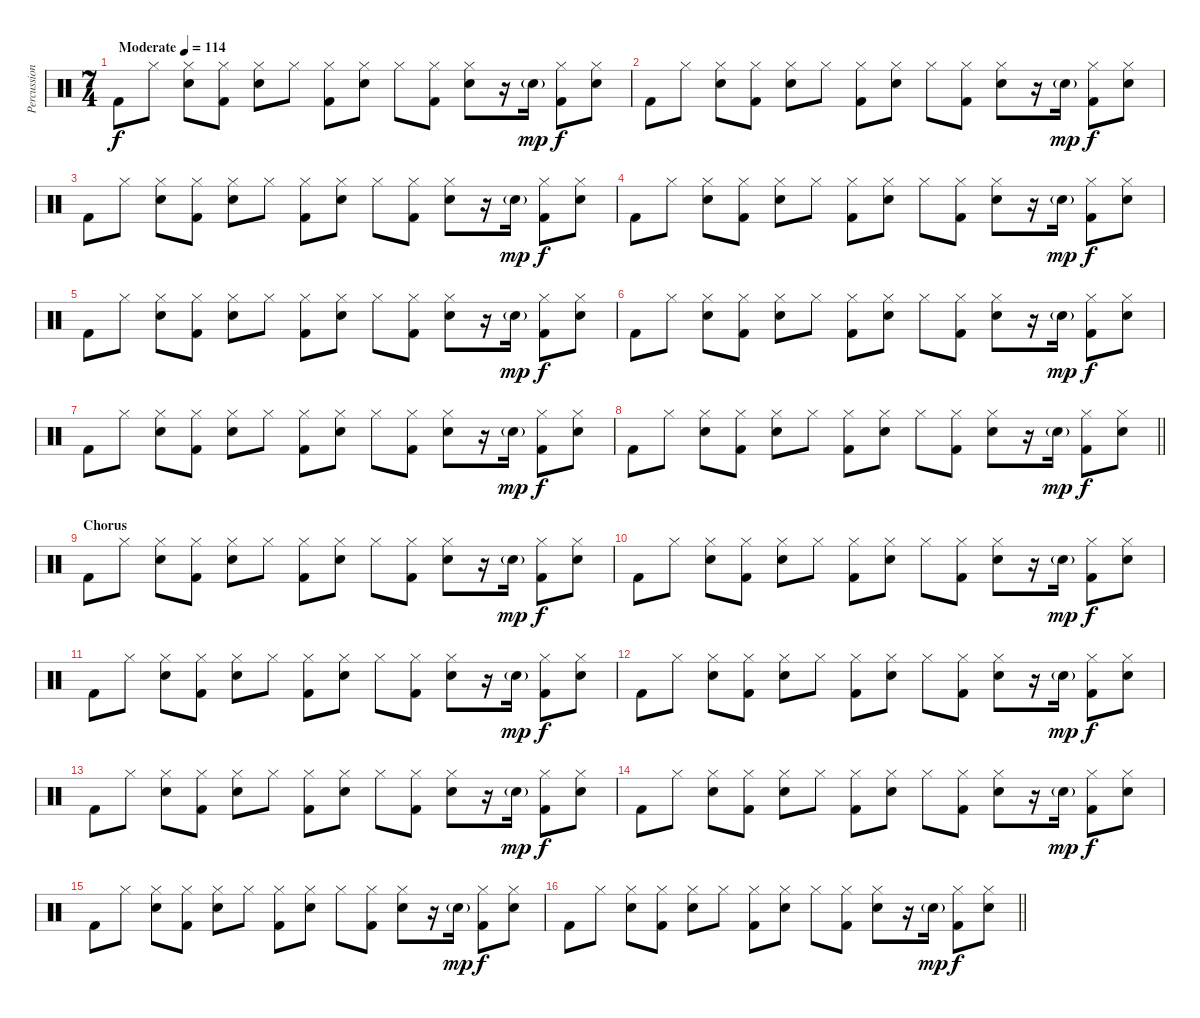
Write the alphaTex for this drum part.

\track ("Percussion" "Percussion") {instrument percussion}
\staff {score}
\articulation defaults
\ts (7 4)
\tempo (114 "Moderate")
\clef neutral
\ks c "Kick (hit) 2".8{dy f} "Hi-Hat (closed)".8
("Hi-Hat (closed)" "Snare (hit) 2").8 ("Hi-Hat (closed)" "Kick (hit) 2").8 ("Hi-Hat (closed)" "Snare (hit) 2").8 "Hi-Hat (closed)".8 ("Hi-Hat (closed)" "Kick (hit) 2").8 ("Hi-Hat (closed)" "Snare (hit) 2").8 "Hi-Hat (closed)".8 ("Hi-Hat (closed)" "Kick (hit) 2").8 ("Hi-Hat (closed)" "Snare (hit) 2").8 r.16 "Snare (hit) 2"{g}.16{dy mp} ("Hi-Hat (closed)" "Kick (hit) 2").8{dy f} ("Hi-Hat (closed)" "Snare (hit) 2").8 |
"Kick (hit) 2".8 "Hi-Hat (closed)".8 ("Hi-Hat (closed)" "Snare (hit) 2").8 ("Hi-Hat (closed)" "Kick (hit) 2").8 ("Hi-Hat (closed)" "Snare (hit) 2").8 "Hi-Hat (closed)".8 ("Hi-Hat (closed)" "Kick (hit) 2").8 ("Hi-Hat (closed)" "Snare (hit) 2").8 "Hi-Hat (closed)".8 ("Hi-Hat (closed)" "Kick (hit) 2").8 ("Hi-Hat (closed)" "Snare (hit) 2").8 r.16 "Snare (hit) 2"{g}.16{dy mp} ("Hi-Hat (closed)" "Kick (hit) 2").8{dy f} ("Hi-Hat (closed)" "Snare (hit) 2").8 |
"Kick (hit) 2".8 "Hi-Hat (closed)".8 ("Hi-Hat (closed)" "Snare (hit) 2").8 ("Hi-Hat (closed)" "Kick (hit) 2").8 ("Hi-Hat (closed)" "Snare (hit) 2").8 "Hi-Hat (closed)".8 ("Hi-Hat (closed)" "Kick (hit) 2").8 ("Hi-Hat (closed)" "Snare (hit) 2").8 "Hi-Hat (closed)".8 ("Hi-Hat (closed)" "Kick (hit) 2").8 ("Hi-Hat (closed)" "Snare (hit) 2").8 r.16 "Snare (hit) 2"{g}.16{dy mp} ("Hi-Hat (closed)" "Kick (hit) 2").8{dy f} ("Hi-Hat (closed)" "Snare (hit) 2").8 |
"Kick (hit) 2".8 "Hi-Hat (closed)".8 ("Hi-Hat (closed)" "Snare (hit) 2").8 ("Hi-Hat (closed)" "Kick (hit) 2").8 ("Hi-Hat (closed)" "Snare (hit) 2").8 "Hi-Hat (closed)".8 ("Hi-Hat (closed)" "Kick (hit) 2").8 ("Hi-Hat (closed)" "Snare (hit) 2").8 "Hi-Hat (closed)".8 ("Hi-Hat (closed)" "Kick (hit) 2").8 ("Hi-Hat (closed)" "Snare (hit) 2").8 r.16 "Snare (hit) 2"{g}.16{dy mp} ("Hi-Hat (closed)" "Kick (hit) 2").8{dy f} ("Hi-Hat (closed)" "Snare (hit) 2").8 |
"Kick (hit) 2".8 "Hi-Hat (closed)".8 ("Hi-Hat (closed)" "Snare (hit) 2").8 ("Hi-Hat (closed)" "Kick (hit) 2").8 ("Hi-Hat (closed)" "Snare (hit) 2").8 "Hi-Hat (closed)".8 ("Hi-Hat (closed)" "Kick (hit) 2").8 ("Hi-Hat (closed)" "Snare (hit) 2").8 "Hi-Hat (closed)".8 ("Hi-Hat (closed)" "Kick (hit) 2").8 ("Hi-Hat (closed)" "Snare (hit) 2").8 r.16 "Snare (hit) 2"{g}.16{dy mp} ("Hi-Hat (closed)" "Kick (hit) 2").8{dy f} ("Hi-Hat (closed)" "Snare (hit) 2").8 |
"Kick (hit) 2".8 "Hi-Hat (closed)".8 ("Hi-Hat (closed)" "Snare (hit) 2").8 ("Hi-Hat (closed)" "Kick (hit) 2").8 ("Hi-Hat (closed)" "Snare (hit) 2").8 "Hi-Hat (closed)".8 ("Hi-Hat (closed)" "Kick (hit) 2").8 ("Hi-Hat (closed)" "Snare (hit) 2").8 "Hi-Hat (closed)".8 ("Hi-Hat (closed)" "Kick (hit) 2").8 ("Hi-Hat (closed)" "Snare (hit) 2").8 r.16 "Snare (hit) 2"{g}.16{dy mp} ("Hi-Hat (closed)" "Kick (hit) 2").8{dy f} ("Hi-Hat (closed)" "Snare (hit) 2").8 |
"Kick (hit) 2".8 "Hi-Hat (closed)".8 ("Hi-Hat (closed)" "Snare (hit) 2").8 ("Hi-Hat (closed)" "Kick (hit) 2").8 ("Hi-Hat (closed)" "Snare (hit) 2").8 "Hi-Hat (closed)".8 ("Hi-Hat (closed)" "Kick (hit) 2").8 ("Hi-Hat (closed)" "Snare (hit) 2").8 "Hi-Hat (closed)".8 ("Hi-Hat (closed)" "Kick (hit) 2").8 ("Hi-Hat (closed)" "Snare (hit) 2").8 r.16 "Snare (hit) 2"{g}.16{dy mp} ("Hi-Hat (closed)" "Kick (hit) 2").8{dy f} ("Hi-Hat (closed)" "Snare (hit) 2").8 |
\barLineRight lightlight "Kick (hit) 2".8 "Hi-Hat (closed)".8
("Hi-Hat (closed)" "Snare (hit) 2").8 ("Hi-Hat (closed)" "Kick (hit) 2").8 ("Hi-Hat (closed)" "Snare (hit) 2").8 "Hi-Hat (closed)".8 ("Hi-Hat (closed)" "Kick (hit) 2").8 ("Hi-Hat (closed)" "Snare (hit) 2").8 "Hi-Hat (closed)".8 ("Hi-Hat (closed)" "Kick (hit) 2").8 ("Hi-Hat (closed)" "Snare (hit) 2").8 r.16 "Snare (hit) 2"{g}.16{dy mp} ("Hi-Hat (closed)" "Kick (hit) 2").8{dy f} ("Hi-Hat (closed)" "Snare (hit) 2").8 |
\section ("" "Chorus")
"Kick (hit) 2".8 "Hi-Hat (closed)".8 ("Hi-Hat (closed)" "Snare (hit) 2").8 ("Hi-Hat (closed)" "Kick (hit) 2").8 ("Hi-Hat (closed)" "Snare (hit) 2").8 "Hi-Hat (closed)".8 ("Hi-Hat (closed)" "Kick (hit) 2").8 ("Hi-Hat (closed)" "Snare (hit) 2").8 "Hi-Hat (closed)".8 ("Hi-Hat (closed)" "Kick (hit) 2").8 ("Hi-Hat (closed)" "Snare (hit) 2").8 r.16 "Snare (hit) 2"{g}.16{dy mp} ("Hi-Hat (closed)" "Kick (hit) 2").8{dy f} ("Hi-Hat (closed)" "Snare (hit) 2").8 |
"Kick (hit) 2".8 "Hi-Hat (closed)".8 ("Hi-Hat (closed)" "Snare (hit) 2").8 ("Hi-Hat (closed)" "Kick (hit) 2").8 ("Hi-Hat (closed)" "Snare (hit) 2").8 "Hi-Hat (closed)".8 ("Hi-Hat (closed)" "Kick (hit) 2").8 ("Hi-Hat (closed)" "Snare (hit) 2").8 "Hi-Hat (closed)".8 ("Hi-Hat (closed)" "Kick (hit) 2").8 ("Hi-Hat (closed)" "Snare (hit) 2").8 r.16 "Snare (hit) 2"{g}.16{dy mp} ("Hi-Hat (closed)" "Kick (hit) 2").8{dy f} ("Hi-Hat (closed)" "Snare (hit) 2").8 |
"Kick (hit) 2".8 "Hi-Hat (closed)".8 ("Hi-Hat (closed)" "Snare (hit) 2").8 ("Hi-Hat (closed)" "Kick (hit) 2").8 ("Hi-Hat (closed)" "Snare (hit) 2").8 "Hi-Hat (closed)".8 ("Hi-Hat (closed)" "Kick (hit) 2").8 ("Hi-Hat (closed)" "Snare (hit) 2").8 "Hi-Hat (closed)".8 ("Hi-Hat (closed)" "Kick (hit) 2").8 ("Hi-Hat (closed)" "Snare (hit) 2").8 r.16 "Snare (hit) 2"{g}.16{dy mp} ("Hi-Hat (closed)" "Kick (hit) 2").8{dy f} ("Hi-Hat (closed)" "Snare (hit) 2").8 |
"Kick (hit) 2".8 "Hi-Hat (closed)".8 ("Hi-Hat (closed)" "Snare (hit) 2").8 ("Hi-Hat (closed)" "Kick (hit) 2").8 ("Hi-Hat (closed)" "Snare (hit) 2").8 "Hi-Hat (closed)".8 ("Hi-Hat (closed)" "Kick (hit) 2").8 ("Hi-Hat (closed)" "Snare (hit) 2").8 "Hi-Hat (closed)".8 ("Hi-Hat (closed)" "Kick (hit) 2").8 ("Hi-Hat (closed)" "Snare (hit) 2").8 r.16 "Snare (hit) 2"{g}.16{dy mp} ("Hi-Hat (closed)" "Kick (hit) 2").8{dy f} ("Hi-Hat (closed)" "Snare (hit) 2").8 |
"Kick (hit) 2".8 "Hi-Hat (closed)".8 ("Hi-Hat (closed)" "Snare (hit) 2").8 ("Hi-Hat (closed)" "Kick (hit) 2").8 ("Hi-Hat (closed)" "Snare (hit) 2").8 "Hi-Hat (closed)".8 ("Hi-Hat (closed)" "Kick (hit) 2").8 ("Hi-Hat (closed)" "Snare (hit) 2").8 "Hi-Hat (closed)".8 ("Hi-Hat (closed)" "Kick (hit) 2").8 ("Hi-Hat (closed)" "Snare (hit) 2").8 r.16 "Snare (hit) 2"{g}.16{dy mp} ("Hi-Hat (closed)" "Kick (hit) 2").8{dy f} ("Hi-Hat (closed)" "Snare (hit) 2").8 |
"Kick (hit) 2".8 "Hi-Hat (closed)".8 ("Hi-Hat (closed)" "Snare (hit) 2").8 ("Hi-Hat (closed)" "Kick (hit) 2").8 ("Hi-Hat (closed)" "Snare (hit) 2").8 "Hi-Hat (closed)".8 ("Hi-Hat (closed)" "Kick (hit) 2").8 ("Hi-Hat (closed)" "Snare (hit) 2").8 "Hi-Hat (closed)".8 ("Hi-Hat (closed)" "Kick (hit) 2").8 ("Hi-Hat (closed)" "Snare (hit) 2").8 r.16 "Snare (hit) 2"{g}.16{dy mp} ("Hi-Hat (closed)" "Kick (hit) 2").8{dy f} ("Hi-Hat (closed)" "Snare (hit) 2").8 |
"Kick (hit) 2".8 "Hi-Hat (closed)".8 ("Hi-Hat (closed)" "Snare (hit) 2").8 ("Hi-Hat (closed)" "Kick (hit) 2").8 ("Hi-Hat (closed)" "Snare (hit) 2").8 "Hi-Hat (closed)".8 ("Hi-Hat (closed)" "Kick (hit) 2").8 ("Hi-Hat (closed)" "Snare (hit) 2").8 "Hi-Hat (closed)".8 ("Hi-Hat (closed)" "Kick (hit) 2").8 ("Hi-Hat (closed)" "Snare (hit) 2").8 r.16 "Snare (hit) 2"{g}.16{dy mp} ("Hi-Hat (closed)" "Kick (hit) 2").8{dy f} ("Hi-Hat (closed)" "Snare (hit) 2").8 |
\barLineRight lightlight "Kick (hit) 2".8 "Hi-Hat (closed)".8
("Hi-Hat (closed)" "Snare (hit) 2").8 ("Hi-Hat (closed)" "Kick (hit) 2").8 ("Hi-Hat (closed)" "Snare (hit) 2").8 "Hi-Hat (closed)".8 ("Hi-Hat (closed)" "Kick (hit) 2").8 ("Hi-Hat (closed)" "Snare (hit) 2").8 "Hi-Hat (closed)".8 ("Hi-Hat (closed)" "Kick (hit) 2").8 ("Hi-Hat (closed)" "Snare (hit) 2").8 r.16 "Snare (hit) 2"{g}.16{dy mp} ("Hi-Hat (closed)" "Kick (hit) 2").8{dy f} ("Hi-Hat (closed)" "Snare (hit) 2").8
